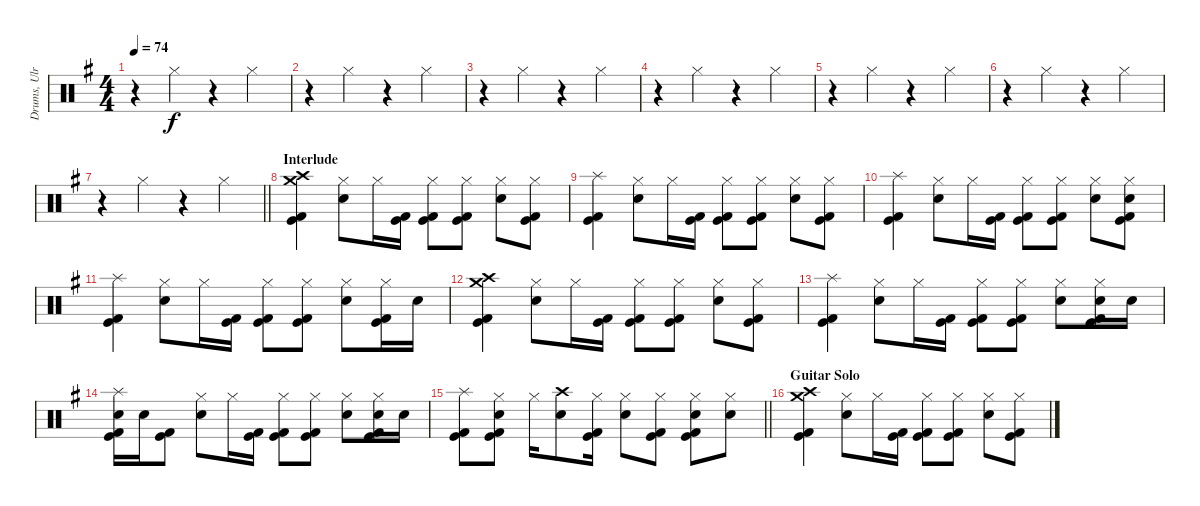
\track ("Drums, Ulrich" "Drums, Ulr") {instrument percussion}
\staff {score}
\articulation defaults
\ts (4 4)
\tempo 74
\clef neutral
\ks g
r.4{dy f} "Hi-Hat (closed)".4 r.4 "Hi-Hat (closed)".4 |
r.4 "Hi-Hat (closed)".4 r.4 "Hi-Hat (closed)".4 |
r.4 "Hi-Hat (closed)".4 r.4 "Hi-Hat (closed)".4 |
r.4 "Hi-Hat (closed)".4 r.4 "Hi-Hat (closed)".4 |
r.4 "Hi-Hat (closed)".4 r.4 "Hi-Hat (closed)".4 |
r.4 "Hi-Hat (closed)".4 r.4 "Hi-Hat (closed)".4 |
\barLineRight lightlight
r.4 "Hi-Hat (closed)".4 r.4 "Hi-Hat (closed)".4 |
\section ("" "Interlude")
("Crash medium (hit)" "Crash high (hit)" "Kick (hit) 2" "Kick (hit)").4 ("Hi-Hat (closed)" "Electric Snare (hit)").8 "Hi-Hat (closed)".16 ("Kick (hit) 2" "Kick (hit)").16 ("Hi-Hat (closed)" "Kick (hit) 2" "Kick (hit)").8 ("Hi-Hat (closed)" "Kick (hit)" "Kick (hit) 2").8 ("Hi-Hat (closed)" "Electric Snare (hit)").8 ("Hi-Hat (closed)" "Kick (hit) 2" "Kick (hit)").8 |
("Splash (hit)" "Kick (hit) 2" "Kick (hit)").4 ("Hi-Hat (closed)" "Electric Snare (hit)").8 "Hi-Hat (closed)".16 ("Kick (hit) 2" "Kick (hit)").16 ("Hi-Hat (closed)" "Kick (hit) 2" "Kick (hit)").8 ("Hi-Hat (closed)" "Kick (hit)" "Kick (hit) 2").8 ("Hi-Hat (closed)" "Electric Snare (hit)").8 ("Hi-Hat (closed)" "Kick (hit) 2" "Kick (hit)").8 |
("Splash (hit)" "Kick (hit) 2" "Kick (hit)").4 ("Hi-Hat (closed)" "Electric Snare (hit)").8 "Hi-Hat (closed)".16 ("Kick (hit) 2" "Kick (hit)").16 ("Hi-Hat (closed)" "Kick (hit) 2" "Kick (hit)").8 ("Hi-Hat (closed)" "Kick (hit)" "Kick (hit) 2").8 ("Hi-Hat (closed)" "Electric Snare (hit)").8 ("Hi-Hat (closed)" "Electric Snare (hit)" "Kick (hit) 2" "Kick (hit)").8 |
("Splash (hit)" "Kick (hit) 2" "Kick (hit)").4 ("Hi-Hat (closed)" "Electric Snare (hit)").8 "Hi-Hat (closed)".16 ("Kick (hit) 2" "Kick (hit)").16 ("Hi-Hat (closed)" "Kick (hit) 2" "Kick (hit)").8 ("Hi-Hat (closed)" "Kick (hit)" "Kick (hit) 2").8 ("Hi-Hat (closed)" "Electric Snare (hit)").8 ("Hi-Hat (closed)" "Kick (hit) 2" "Kick (hit)").16 "Electric Snare (hit)".16 |
("Crash medium (hit)" "Crash high (hit)" "Kick (hit) 2" "Kick (hit)").4 ("Hi-Hat (closed)" "Electric Snare (hit)").8 "Hi-Hat (closed)".16 ("Kick (hit) 2" "Kick (hit)").16 ("Hi-Hat (closed)" "Kick (hit) 2" "Kick (hit)").8 ("Hi-Hat (closed)" "Kick (hit)" "Kick (hit) 2").8 ("Hi-Hat (closed)" "Electric Snare (hit)").8 ("Hi-Hat (closed)" "Kick (hit) 2" "Kick (hit)").8 |
("Splash (hit)" "Kick (hit) 2" "Kick (hit)").4 ("Hi-Hat (closed)" "Electric Snare (hit)").8 "Hi-Hat (closed)".16 ("Kick (hit) 2" "Kick (hit)").16 ("Hi-Hat (closed)" "Kick (hit) 2" "Kick (hit)").8 ("Hi-Hat (closed)" "Kick (hit)" "Kick (hit) 2").8 ("Hi-Hat (closed)" "Electric Snare (hit)").8 ("Hi-Hat (closed)" "Electric Snare (hit)" "Kick (hit) 2" "Kick (hit)").16 "Electric Snare (hit)".16 |
("Splash (hit)" "Electric Snare (hit)" "Kick (hit) 2" "Kick (hit)").16 "Electric Snare (hit)".16 ("Kick (hit) 2" "Kick (hit)").8 ("Hi-Hat (closed)" "Electric Snare (hit)").8 "Hi-Hat (closed)".16 ("Kick (hit) 2" "Kick (hit)").16 ("Hi-Hat (closed)" "Kick (hit) 2" "Kick (hit)").8 ("Hi-Hat (closed)" "Kick (hit)" "Kick (hit) 2").8 ("Hi-Hat (closed)" "Electric Snare (hit)").8 ("Hi-Hat (closed)" "Electric Snare (hit)" "Kick (hit) 2" "Kick (hit)").16 "Electric Snare (hit)".16 |
\barLineRight lightlight
("Splash (hit)" "Kick (hit) 2" "Kick (hit)").8 ("Hi-Hat (closed)" "Electric Snare (hit)" "Kick (hit) 2" "Kick (hit)").8 "Hi-Hat (closed)".16 ("Crash high (hit)" "Electric Snare (hit)").8 ("Hi-Hat (closed)" "Kick (hit)" "Kick (hit) 2").16 ("Hi-Hat (closed)" "Electric Snare (hit)").8 ("Hi-Hat (closed)" "Kick (hit) 2" "Kick (hit)").8 ("Hi-Hat (closed)" "Electric Snare (hit)" "Kick (hit)" "Kick (hit) 2").8 ("Hi-Hat (closed)" "Electric Snare (hit)").8 |
\section ("" "Guitar Solo")
("Crash medium (hit)" "Crash high (hit)" "Kick (hit) 2" "Kick (hit)").4 ("Hi-Hat (closed)" "Electric Snare (hit)").8 "Hi-Hat (closed)".16 ("Kick (hit) 2" "Kick (hit)").16 ("Hi-Hat (closed)" "Kick (hit) 2" "Kick (hit)").8 ("Hi-Hat (closed)" "Kick (hit)" "Kick (hit) 2").8 ("Hi-Hat (closed)" "Electric Snare (hit)").8 ("Hi-Hat (closed)" "Kick (hit) 2" "Kick (hit)").8
